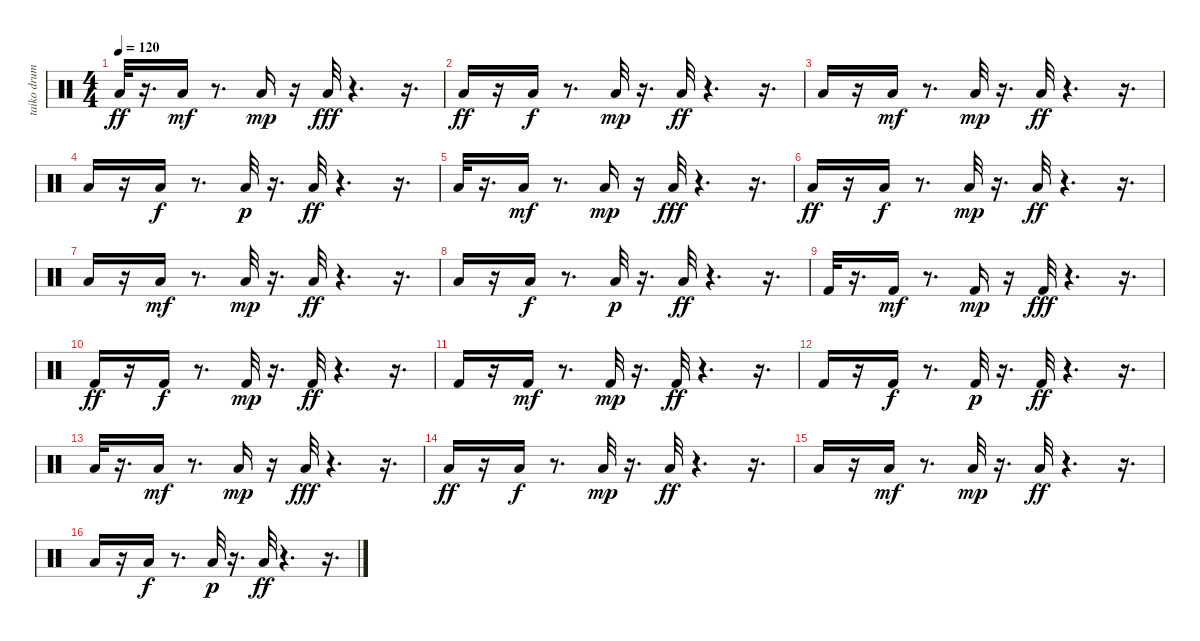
\track ("taiko drum" "taiko drum") {instrument percussion}
\staff {score}
\articulation defaults
\ts (4 4)
\tempo 120
\clef neutral
\ks c "Low Floor Tom (hit)".32{dy ff}
r.16{d} "Low Floor Tom (hit)".16{dy mf} r.8{d} "Low Floor Tom (hit)".16{dy mp} r.16 "Low Floor Tom (hit)".32{dy fff} r.4{d} r.16{d} |
"Low Floor Tom (hit)".16{dy ff} r.16 "Low Floor Tom (hit)".16{dy f} r.8{d} "Low Floor Tom (hit)".32{dy mp} r.16{d} "Low Floor Tom (hit)".32{dy ff} r.4{d} r.16{d} |
"Low Floor Tom (hit)".16 r.16 "Low Floor Tom (hit)".16{dy mf} r.8{d} "Low Floor Tom (hit)".32{dy mp} r.16{d} "Low Floor Tom (hit)".32{dy ff} r.4{d} r.16{d} |
"Low Floor Tom (hit)".16 r.16 "Low Floor Tom (hit)".16{dy f} r.8{d} "Low Floor Tom (hit)".32{dy p} r.16{d} "Low Floor Tom (hit)".32{dy ff} r.4{d} r.16{d} |
"Low Floor Tom (hit)".32 r.16{d} "Low Floor Tom (hit)".16{dy mf} r.8{d} "Low Floor Tom (hit)".16{dy mp} r.16 "Low Floor Tom (hit)".32{dy fff} r.4{d} r.16{d} |
"Low Floor Tom (hit)".16{dy ff} r.16 "Low Floor Tom (hit)".16{dy f} r.8{d} "Low Floor Tom (hit)".32{dy mp} r.16{d} "Low Floor Tom (hit)".32{dy ff} r.4{d} r.16{d} |
"Low Floor Tom (hit)".16 r.16 "Low Floor Tom (hit)".16{dy mf} r.8{d} "Low Floor Tom (hit)".32{dy mp} r.16{d} "Low Floor Tom (hit)".32{dy ff} r.4{d} r.16{d} |
"Low Floor Tom (hit)".16 r.16 "Low Floor Tom (hit)".16{dy f} r.8{d} "Low Floor Tom (hit)".32{dy p} r.16{d} "Low Floor Tom (hit)".32{dy ff} r.4{d} r.16{d} |
"Kick (hit) 2".32 r.16{d} "Kick (hit) 2".16{dy mf} r.8{d} "Kick (hit) 2".16{dy mp} r.16 "Kick (hit) 2".32{dy fff} r.4{d} r.16{d} |
"Kick (hit) 2".16{dy ff} r.16 "Kick (hit) 2".16{dy f} r.8{d} "Kick (hit) 2".32{dy mp} r.16{d} "Kick (hit) 2".32{dy ff} r.4{d} r.16{d} |
"Kick (hit) 2".16 r.16 "Kick (hit) 2".16{dy mf} r.8{d} "Kick (hit) 2".32{dy mp} r.16{d} "Kick (hit) 2".32{dy ff} r.4{d} r.16{d} |
"Kick (hit) 2".16 r.16 "Kick (hit) 2".16{dy f} r.8{d} "Kick (hit) 2".32{dy p} r.16{d} "Kick (hit) 2".32{dy ff} r.4{d} r.16{d} |
"Low Floor Tom (hit)".32 r.16{d} "Low Floor Tom (hit)".16{dy mf} r.8{d} "Low Floor Tom (hit)".16{dy mp} r.16 "Low Floor Tom (hit)".32{dy fff} r.4{d} r.16{d} |
"Low Floor Tom (hit)".16{dy ff} r.16 "Low Floor Tom (hit)".16{dy f} r.8{d} "Low Floor Tom (hit)".32{dy mp} r.16{d} "Low Floor Tom (hit)".32{dy ff} r.4{d} r.16{d} |
"Low Floor Tom (hit)".16 r.16 "Low Floor Tom (hit)".16{dy mf} r.8{d} "Low Floor Tom (hit)".32{dy mp} r.16{d} "Low Floor Tom (hit)".32{dy ff} r.4{d} r.16{d} |
"Low Floor Tom (hit)".16 r.16 "Low Floor Tom (hit)".16{dy f} r.8{d} "Low Floor Tom (hit)".32{dy p} r.16{d} "Low Floor Tom (hit)".32{dy ff} r.4{d} r.16{d}
